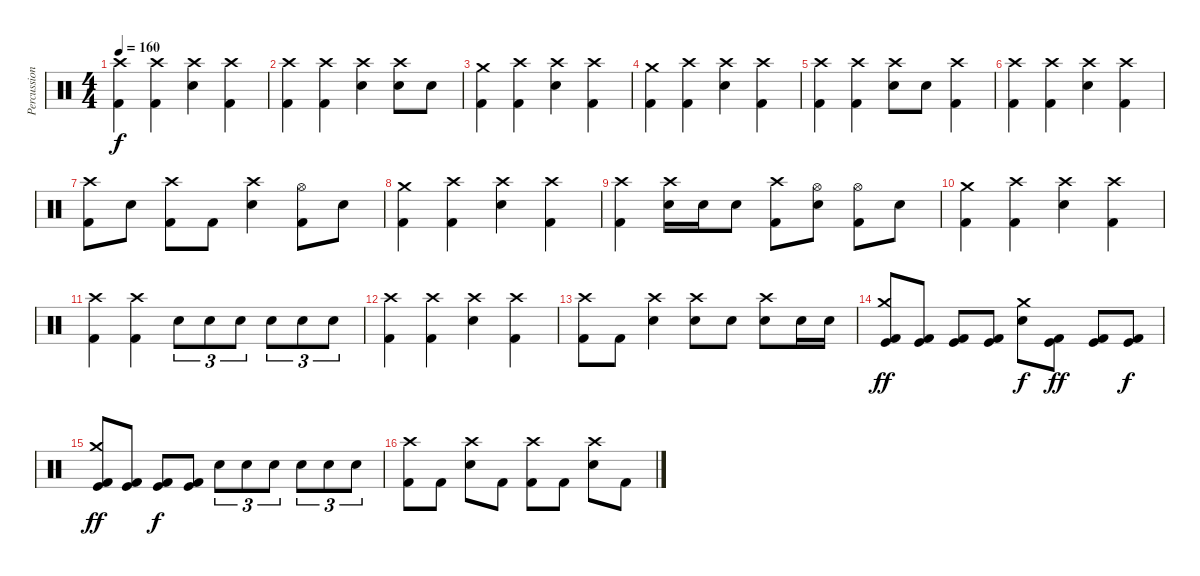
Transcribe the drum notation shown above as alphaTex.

\track ("Percussions" "Percussion") {instrument percussion}
\staff {score}
\articulation defaults
\ts (4 4)
\tempo 160
\clef neutral
\ks c
("Crash high (hit)" "Kick (hit) 2").4{dy f} ("Crash high (hit)" "Kick (hit) 2").4 ("Crash high (hit)" "Snare (hit) 2").4 ("Crash high (hit)" "Kick (hit) 2").4 |
("Crash high (hit)" "Kick (hit) 2").4 ("Crash high (hit)" "Kick (hit) 2").4 ("Crash high (hit)" "Snare (hit) 2").4 ("Crash high (hit)" "Snare (hit) 2").8 "Snare (hit) 2".8 |
("Crash medium (hit)" "Kick (hit) 2").4 ("Crash high (hit)" "Kick (hit) 2").4 ("Crash high (hit)" "Snare (hit) 2").4 ("Crash high (hit)" "Kick (hit) 2").4 |
("Crash medium (hit)" "Kick (hit) 2").4 ("Crash high (hit)" "Kick (hit) 2").4 ("Crash high (hit)" "Snare (hit) 2").4 ("Crash high (hit)" "Kick (hit) 2").4 |
("Crash high (hit)" "Kick (hit) 2").4 ("Crash high (hit)" "Kick (hit) 2").4 ("Crash high (hit)" "Snare (hit) 2").8 "Snare (hit) 2".8 ("Crash high (hit)" "Kick (hit) 2").4 |
("Crash high (hit)" "Kick (hit) 2").4 ("Crash high (hit)" "Kick (hit) 2").4 ("Crash high (hit)" "Snare (hit) 2").4 ("Crash high (hit)" "Kick (hit) 2").4 |
("Crash high (hit)" "Kick (hit) 2").8 "Snare (hit) 2".8 ("Crash high (hit)" "Kick (hit) 2").8 "Kick (hit) 2".8 ("Crash high (hit)" "Snare (hit) 2").4 ("Hi-Hat (open)" "Kick (hit) 2").8 "Snare (hit) 2".8 |
("Crash medium (hit)" "Kick (hit) 2").4 ("Crash high (hit)" "Kick (hit) 2").4 ("Crash high (hit)" "Snare (hit) 2").4 ("Crash high (hit)" "Kick (hit) 2").4 |
("Crash high (hit)" "Kick (hit) 2").4 ("Crash high (hit)" "Snare (hit) 2").16 "Snare (hit) 2".16 "Snare (hit) 2".8 ("Crash high (hit)" "Kick (hit) 2").8 ("Hi-Hat (open)" "Snare (hit) 2").8 ("Hi-Hat (open)" "Kick (hit) 2").8 "Snare (hit) 2".8 |
("Crash medium (hit)" "Kick (hit) 2").4 ("Crash high (hit)" "Kick (hit) 2").4 ("Crash high (hit)" "Snare (hit) 2").4 ("Crash high (hit)" "Kick (hit) 2").4 |
("Crash high (hit)" "Kick (hit) 2").4 ("Crash high (hit)" "Kick (hit) 2").4 "Snare (hit) 2".8{tu (3 2)} "Snare (hit) 2".8{tu (3 2)} "Snare (hit) 2".8{tu (3 2)} "Snare (hit) 2".8{tu (3 2)} "Snare (hit) 2".8{tu (3 2)} "Snare (hit) 2".8{tu (3 2)} |
("Crash high (hit)" "Kick (hit) 2").4 ("Crash high (hit)" "Kick (hit) 2").4 ("Crash high (hit)" "Snare (hit) 2").4 ("Crash high (hit)" "Kick (hit) 2").4 |
("Crash high (hit)" "Kick (hit) 2").8 "Kick (hit) 2".8 ("Crash high (hit)" "Snare (hit) 2").4 ("Crash high (hit)" "Snare (hit) 2").8 "Snare (hit) 2".8 ("Crash high (hit)" "Snare (hit) 2").8 "Snare (hit) 2".16 "Snare (hit) 2".16 |
("Crash medium (hit)" "Kick (hit)" "Kick (hit) 2").8{dy ff} ("Kick (hit)" "Kick (hit) 2").8 ("Kick (hit)" "Kick (hit) 2").8 ("Kick (hit)" "Kick (hit) 2").8 ("Crash medium (hit)" "Snare (hit) 2").8{dy f} ("Kick (hit)" "Kick (hit) 2").8{dy ff} ("Kick (hit)" "Kick (hit) 2").8 ("Kick (hit)" "Kick (hit) 2").8{dy f} |
("Crash medium (hit)" "Kick (hit)" "Kick (hit) 2").8{dy ff} ("Kick (hit)" "Kick (hit) 2").8 ("Kick (hit)" "Kick (hit) 2").8{dy f} ("Kick (hit)" "Kick (hit) 2").8 "Snare (hit) 2".8{tu (3 2)} "Snare (hit) 2".8{tu (3 2)} "Snare (hit) 2".8{tu (3 2)} "Snare (hit) 2".8{tu (3 2)} "Snare (hit) 2".8{tu (3 2)} "Snare (hit) 2".8{tu (3 2)} |
("Crash high (hit)" "Kick (hit) 2").8 "Kick (hit) 2".8 ("Crash high (hit)" "Snare (hit) 2").8 "Kick (hit) 2".8 ("Crash high (hit)" "Kick (hit) 2").8 "Kick (hit) 2".8 ("Crash high (hit)" "Snare (hit) 2").8 "Kick (hit) 2".8
